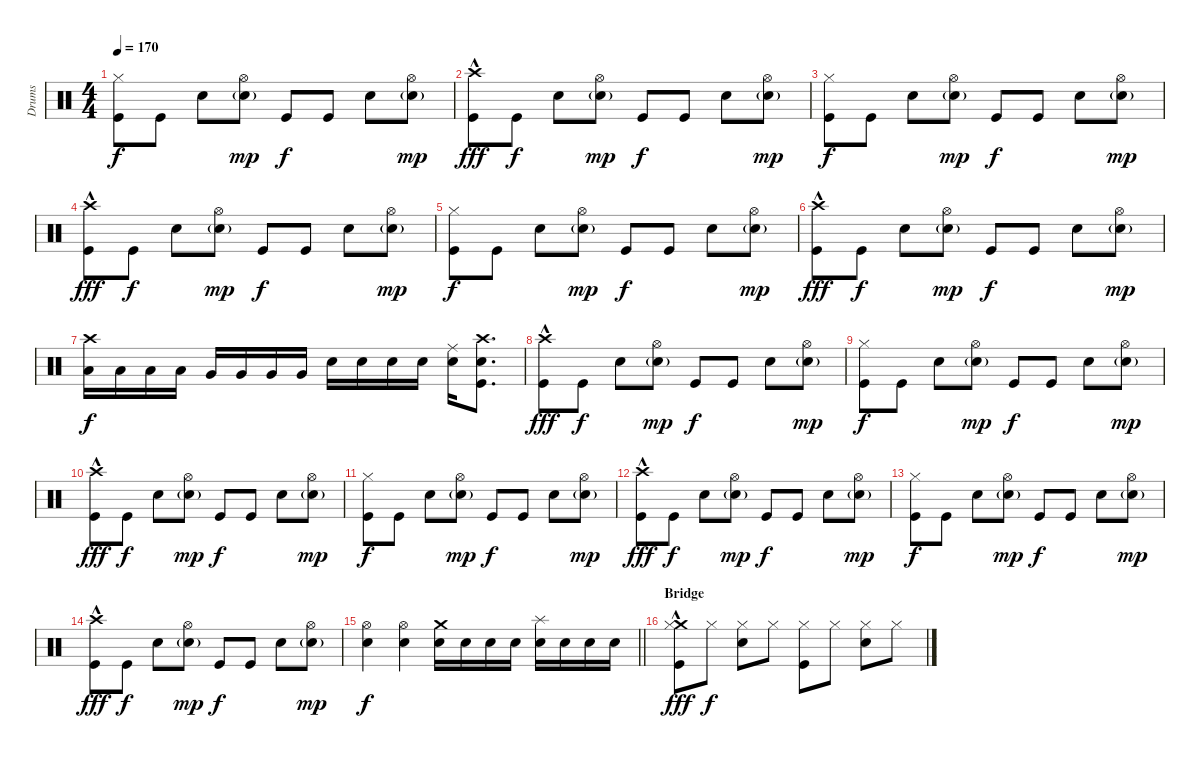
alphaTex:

\track ("Drums" "Drums") {instrument percussion}
\staff {score}
\articulation defaults
\ts (4 4)
\tempo 170
\clef neutral
\ks c
("Hi-Hat (closed)" "Kick (hit)").8{dy f} "Kick (hit)".8 "Electric Snare (hit)".8 ("Hi-Hat (open)" "Electric Snare (hit)"{g}).8{dy mp} "Kick (hit)".8{dy f} "Kick (hit)".8 "Electric Snare (hit)".8 ("Hi-Hat (open)" "Electric Snare (hit)"{g}).8{dy mp} |
("Crash high (hit)"{hac} "Kick (hit)").8{dy fff} "Kick (hit)".8{dy f} "Electric Snare (hit)".8 ("Hi-Hat (open)" "Electric Snare (hit)"{g}).8{dy mp} "Kick (hit)".8{dy f} "Kick (hit)".8 "Electric Snare (hit)".8 ("Hi-Hat (open)" "Electric Snare (hit)"{g}).8{dy mp} |
("Hi-Hat (closed)" "Kick (hit)").8{dy f} "Kick (hit)".8 "Electric Snare (hit)".8 ("Hi-Hat (open)" "Electric Snare (hit)"{g}).8{dy mp} "Kick (hit)".8{dy f} "Kick (hit)".8 "Electric Snare (hit)".8 ("Hi-Hat (open)" "Electric Snare (hit)"{g}).8{dy mp} |
("Crash high (hit)"{hac} "Kick (hit)").8{dy fff} "Kick (hit)".8{dy f} "Electric Snare (hit)".8 ("Hi-Hat (open)" "Electric Snare (hit)"{g}).8{dy mp} "Kick (hit)".8{dy f} "Kick (hit)".8 "Electric Snare (hit)".8 ("Hi-Hat (open)" "Electric Snare (hit)"{g}).8{dy mp} |
("Hi-Hat (closed)" "Kick (hit)").8{dy f} "Kick (hit)".8 "Electric Snare (hit)".8 ("Hi-Hat (open)" "Electric Snare (hit)"{g}).8{dy mp} "Kick (hit)".8{dy f} "Kick (hit)".8 "Electric Snare (hit)".8 ("Hi-Hat (open)" "Electric Snare (hit)"{g}).8{dy mp} |
("Crash high (hit)"{hac} "Kick (hit)").8{dy fff} "Kick (hit)".8{dy f} "Electric Snare (hit)".8 ("Hi-Hat (open)" "Electric Snare (hit)"{g}).8{dy mp} "Kick (hit)".8{dy f} "Kick (hit)".8 "Electric Snare (hit)".8 ("Hi-Hat (open)" "Electric Snare (hit)"{g}).8{dy mp} |
("Crash high (hit)" "Low Floor Tom (hit)").16{dy f} "Low Floor Tom (hit)".16 "Low Floor Tom (hit)".16 "Low Floor Tom (hit)".16 "Very Low Tom (hit)".16 "Very Low Tom (hit)".16 "Very Low Tom (hit)".16 "Very Low Tom (hit)".16 "Electric Snare (hit)".16 "Electric Snare (hit)".16 "Electric Snare (hit)".16 "Electric Snare (hit)".16 ("Ride (middle)" "Electric Snare (hit)").16 ("Crash high (hit)" "Electric Snare (hit)" "Kick (hit)").8{d} |
("Crash high (hit)"{hac} "Kick (hit)").8{dy fff} "Kick (hit)".8{dy f} "Electric Snare (hit)".8 ("Hi-Hat (open)" "Electric Snare (hit)"{g}).8{dy mp} "Kick (hit)".8{dy f} "Kick (hit)".8 "Electric Snare (hit)".8 ("Hi-Hat (open)" "Electric Snare (hit)"{g}).8{dy mp} |
("Hi-Hat (closed)" "Kick (hit)").8{dy f} "Kick (hit)".8 "Electric Snare (hit)".8 ("Hi-Hat (open)" "Electric Snare (hit)"{g}).8{dy mp} "Kick (hit)".8{dy f} "Kick (hit)".8 "Electric Snare (hit)".8 ("Hi-Hat (open)" "Electric Snare (hit)"{g}).8{dy mp} |
("Crash high (hit)"{hac} "Kick (hit)").8{dy fff} "Kick (hit)".8{dy f} "Electric Snare (hit)".8 ("Hi-Hat (open)" "Electric Snare (hit)"{g}).8{dy mp} "Kick (hit)".8{dy f} "Kick (hit)".8 "Electric Snare (hit)".8 ("Hi-Hat (open)" "Electric Snare (hit)"{g}).8{dy mp} |
("Hi-Hat (closed)" "Kick (hit)").8{dy f} "Kick (hit)".8 "Electric Snare (hit)".8 ("Hi-Hat (open)" "Electric Snare (hit)"{g}).8{dy mp} "Kick (hit)".8{dy f} "Kick (hit)".8 "Electric Snare (hit)".8 ("Hi-Hat (open)" "Electric Snare (hit)"{g}).8{dy mp} |
("Crash high (hit)"{hac} "Kick (hit)").8{dy fff} "Kick (hit)".8{dy f} "Electric Snare (hit)".8 ("Hi-Hat (open)" "Electric Snare (hit)"{g}).8{dy mp} "Kick (hit)".8{dy f} "Kick (hit)".8 "Electric Snare (hit)".8 ("Hi-Hat (open)" "Electric Snare (hit)"{g}).8{dy mp} |
("Hi-Hat (closed)" "Kick (hit)").8{dy f} "Kick (hit)".8 "Electric Snare (hit)".8 ("Hi-Hat (open)" "Electric Snare (hit)"{g}).8{dy mp} "Kick (hit)".8{dy f} "Kick (hit)".8 "Electric Snare (hit)".8 ("Hi-Hat (open)" "Electric Snare (hit)"{g}).8{dy mp} |
("Crash high (hit)"{hac} "Kick (hit)").8{dy fff} "Kick (hit)".8{dy f} "Electric Snare (hit)".8 ("Hi-Hat (open)" "Electric Snare (hit)"{g}).8{dy mp} "Kick (hit)".8{dy f} "Kick (hit)".8 "Electric Snare (hit)".8 ("Hi-Hat (open)" "Electric Snare (hit)"{g}).8{dy mp} |
\barLineRight lightlight
("Hi-Hat (open)" "Electric Snare (hit)").4{dy f} ("Hi-Hat (open)" "Electric Snare (hit)").4 ("Crash medium (hit)" "Electric Snare (hit)").16 "Electric Snare (hit)".16 "Electric Snare (hit)".16 "Electric Snare (hit)".16 ("Splash (hit)" "Electric Snare (hit)").16 "Electric Snare (hit)".16 "Electric Snare (hit)".16 "Electric Snare (hit)".16 |
\section ("" "Bridge")
("Crash medium (hit)"{hac} "Hi-Hat (closed)" "Kick (hit)").8{dy fff} "Hi-Hat (closed)".8{dy f} ("Hi-Hat (closed)" "Electric Snare (hit)").8 "Hi-Hat (closed)".8 ("Hi-Hat (closed)" "Kick (hit)").8 "Hi-Hat (closed)".8 ("Hi-Hat (closed)" "Electric Snare (hit)").8 "Hi-Hat (closed)".8
